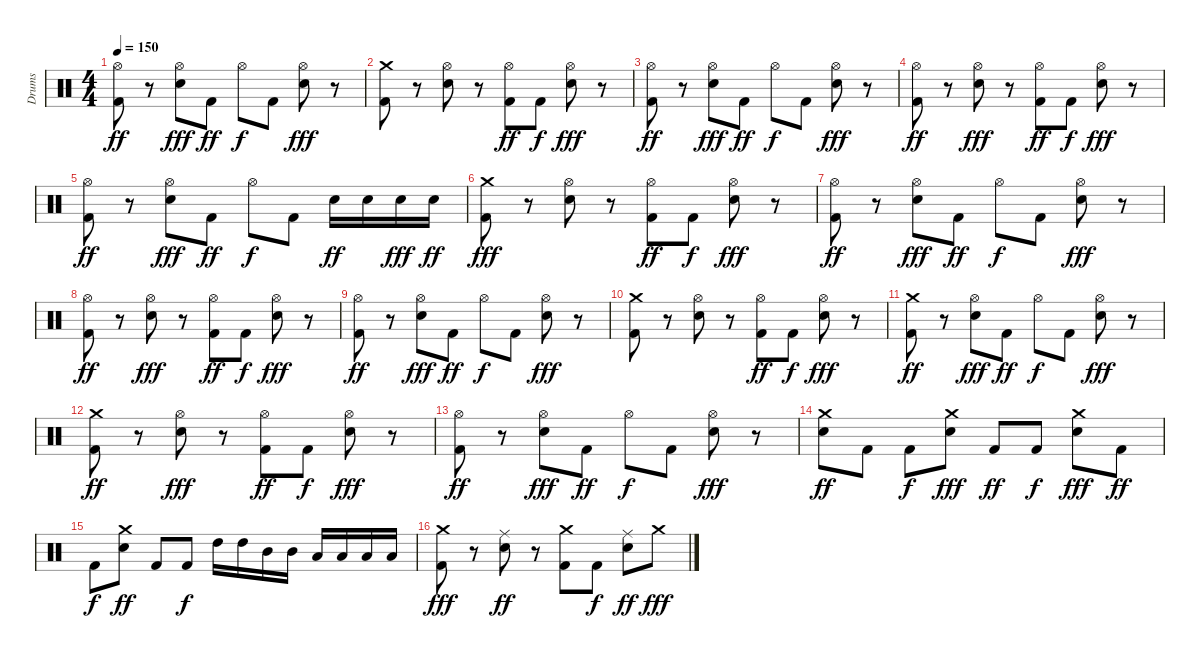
\track ("Drums" "Drums") {instrument percussion}
\staff {score}
\articulation defaults
\ts (4 4)
\tempo 150
\clef neutral
\ks c
("Kick (hit) 2" "Hi-Hat (open)").8{dy ff} r.8 ("Snare (hit) 2" "Hi-Hat (open)").8{dy fff} "Kick (hit) 2".8{dy ff} "Hi-Hat (open)".8{dy f} "Kick (hit) 2".8 ("Snare (hit) 2" "Hi-Hat (open)").8{dy fff} r.8 |
("Kick (hit) 2" "Crash medium (hit)").8 r.8 ("Snare (hit) 2" "Hi-Hat (open)").8 r.8 ("Kick (hit) 2" "Hi-Hat (open)").8{dy ff} "Kick (hit) 2".8{dy f} ("Snare (hit) 2" "Hi-Hat (open)").8{dy fff} r.8 |
("Kick (hit) 2" "Hi-Hat (open)").8{dy ff} r.8 ("Snare (hit) 2" "Hi-Hat (open)").8{dy fff} "Kick (hit) 2".8{dy ff} "Hi-Hat (open)".8{dy f} "Kick (hit) 2".8 ("Snare (hit) 2" "Hi-Hat (open)").8{dy fff} r.8 |
("Hi-Hat (open)" "Kick (hit) 2").8{dy ff} r.8 ("Snare (hit) 2" "Hi-Hat (open)").8{dy fff} r.8 ("Kick (hit) 2" "Hi-Hat (open)").8{dy ff} "Kick (hit) 2".8{dy f} ("Snare (hit) 2" "Hi-Hat (open)").8{dy fff} r.8 |
("Kick (hit) 2" "Hi-Hat (open)").8{dy ff} r.8 ("Snare (hit) 2" "Hi-Hat (open)").8{dy fff} "Kick (hit) 2".8{dy ff} "Hi-Hat (open)".8{dy f} "Kick (hit) 2".8 "Snare (hit) 2".16{dy ff} "Snare (hit) 2".16 "Snare (hit) 2".16{dy fff} "Snare (hit) 2".16{dy ff} |
("Kick (hit) 2" "Crash medium (hit)").8{dy fff} r.8 ("Snare (hit) 2" "Hi-Hat (open)").8 r.8 ("Kick (hit) 2" "Hi-Hat (open)").8{dy ff} "Kick (hit) 2".8{dy f} ("Snare (hit) 2" "Hi-Hat (open)").8{dy fff} r.8 |
("Kick (hit) 2" "Hi-Hat (open)").8{dy ff} r.8 ("Snare (hit) 2" "Hi-Hat (open)").8{dy fff} "Kick (hit) 2".8{dy ff} "Hi-Hat (open)".8{dy f} "Kick (hit) 2".8 ("Snare (hit) 2" "Hi-Hat (open)").8{dy fff} r.8 |
("Hi-Hat (open)" "Kick (hit) 2").8{dy ff} r.8 ("Snare (hit) 2" "Hi-Hat (open)").8{dy fff} r.8 ("Kick (hit) 2" "Hi-Hat (open)").8{dy ff} "Kick (hit) 2".8{dy f} ("Snare (hit) 2" "Hi-Hat (open)").8{dy fff} r.8 |
("Kick (hit) 2" "Hi-Hat (open)").8{dy ff} r.8 ("Snare (hit) 2" "Hi-Hat (open)").8{dy fff} "Kick (hit) 2".8{dy ff} "Hi-Hat (open)".8{dy f} "Kick (hit) 2".8 ("Snare (hit) 2" "Hi-Hat (open)").8{dy fff} r.8 |
("Kick (hit) 2" "Crash medium (hit)").8 r.8 ("Snare (hit) 2" "Hi-Hat (open)").8 r.8 ("Kick (hit) 2" "Hi-Hat (open)").8{dy ff} "Kick (hit) 2".8{dy f} ("Snare (hit) 2" "Hi-Hat (open)").8{dy fff} r.8 |
("Crash medium (hit)" "Kick (hit) 2").8{dy ff} r.8 ("Snare (hit) 2" "Hi-Hat (open)").8{dy fff} "Kick (hit) 2".8{dy ff} "Hi-Hat (open)".8{dy f} "Kick (hit) 2".8 ("Snare (hit) 2" "Hi-Hat (open)").8{dy fff} r.8 |
("Crash medium (hit)" "Kick (hit) 2").8{dy ff} r.8 ("Snare (hit) 2" "Hi-Hat (open)").8{dy fff} r.8 ("Kick (hit) 2" "Hi-Hat (open)").8{dy ff} "Kick (hit) 2".8{dy f} ("Snare (hit) 2" "Hi-Hat (open)").8{dy fff} r.8 |
("Kick (hit) 2" "Hi-Hat (open)").8{dy ff} r.8 ("Snare (hit) 2" "Hi-Hat (open)").8{dy fff} "Kick (hit) 2".8{dy ff} "Hi-Hat (open)".8{dy f} "Kick (hit) 2".8 ("Snare (hit) 2" "Hi-Hat (open)").8{dy fff} r.8 |
("Snare (hit) 2" "Crash medium (hit)").8{dy ff} "Kick (hit) 2".8 "Kick (hit) 2".8{dy f} ("Snare (hit) 2" "Crash medium (hit)").8{dy fff} "Kick (hit) 2".8{dy ff} "Kick (hit) 2".8{dy f} ("Snare (hit) 2" "Crash medium (hit)").8{dy fff} "Kick (hit) 2".8{dy ff} |
"Kick (hit) 2".8{dy f} ("Crash medium (hit)" "Snare (hit) 2").8{dy ff} "Kick (hit) 2".8 "Kick (hit) 2".8{dy f} "High Tom (hit)".16{volume 14} "High Tom (hit)".16{volume 15} "Mid Tom (hit)".16{volume 15} "Mid Tom (hit)".16 "Low Tom (hit)".16{volume 15} "Low Tom (hit)".16{volume 16} "Low Floor Tom (hit)".16 "Low Floor Tom (hit)".16 |
("Kick (hit) 2" "Crash medium (hit)").8{dy fff volume 16} r.8 ("Ride (middle)" "Snare (hit) 2").8{dy ff} r.8 ("Crash medium (hit)" "Kick (hit) 2").8 "Kick (hit) 2".8{dy f} ("Ride (middle)" "Snare (hit) 2").8{dy ff} "Crash medium (hit)".8{dy fff}
